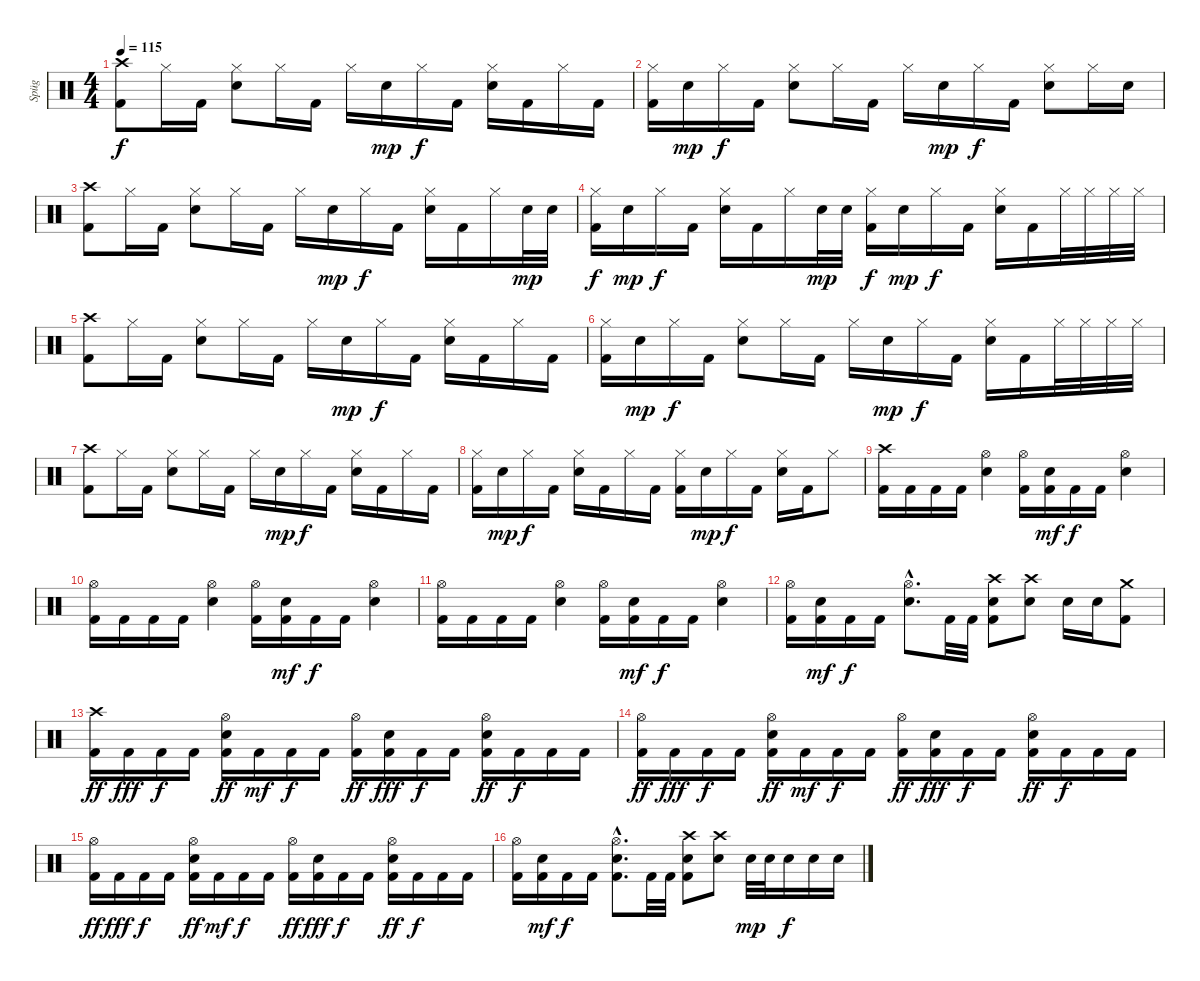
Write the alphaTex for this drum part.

\track ("Spüg" "Spüg") {instrument percussion}
\staff {score}
\articulation defaults
\ts (4 4)
\tempo 115
\clef neutral
\ks c
("Crash high (hit)" "Kick (hit) 2").8{dy f} "Hi-Hat (closed)".16 "Kick (hit) 2".16 ("Hi-Hat (closed)" "Electric Snare (hit)").8 "Hi-Hat (closed)".16 "Kick (hit) 2".16 "Hi-Hat (closed)".16 "Electric Snare (hit)".16{dy mp} "Hi-Hat (closed)".16{dy f} "Kick (hit) 2".16 ("Hi-Hat (closed)" "Electric Snare (hit)").16 "Kick (hit) 2".16 "Hi-Hat (closed)".16 "Kick (hit) 2".16 |
("Hi-Hat (closed)" "Kick (hit) 2").16 "Electric Snare (hit)".16{dy mp} "Hi-Hat (closed)".16{dy f} "Kick (hit) 2".16 ("Hi-Hat (closed)" "Electric Snare (hit)").8 "Hi-Hat (closed)".16 "Kick (hit) 2".16 "Hi-Hat (closed)".16 "Electric Snare (hit)".16{dy mp} "Hi-Hat (closed)".16{dy f} "Kick (hit) 2".16 ("Hi-Hat (closed)" "Electric Snare (hit)").8 "Hi-Hat (closed)".16 "Electric Snare (hit)".16 |
("Crash high (hit)" "Kick (hit) 2").8 "Hi-Hat (closed)".16 "Kick (hit) 2".16 ("Hi-Hat (closed)" "Electric Snare (hit)").8 "Hi-Hat (closed)".16 "Kick (hit) 2".16 "Hi-Hat (closed)".16 "Electric Snare (hit)".16{dy mp} "Hi-Hat (closed)".16{dy f} "Kick (hit) 2".16 ("Hi-Hat (closed)" "Electric Snare (hit)").16 "Kick (hit) 2".16 "Hi-Hat (closed)".16 "Electric Snare (hit)".32{dy mp} "Electric Snare (hit)".32 |
("Hi-Hat (closed)" "Kick (hit) 2").16{dy f} "Electric Snare (hit)".16{dy mp} "Hi-Hat (closed)".16{dy f} "Kick (hit) 2".16 ("Hi-Hat (closed)" "Electric Snare (hit)").16 "Kick (hit) 2".16 "Hi-Hat (closed)".16 "Electric Snare (hit)".32{dy mp} "Electric Snare (hit)".32 ("Hi-Hat (closed)" "Kick (hit) 2").16{dy f} "Electric Snare (hit)".16{dy mp} "Hi-Hat (closed)".16{dy f} "Kick (hit) 2".16 ("Hi-Hat (closed)" "Electric Snare (hit)").16 "Kick (hit) 2".16 "Hi-Hat (closed)".32 "Hi-Hat (closed)".32 "Hi-Hat (closed)".32 "Hi-Hat (closed)".32 |
("Crash high (hit)" "Kick (hit) 2").8 "Hi-Hat (closed)".16 "Kick (hit) 2".16 ("Hi-Hat (closed)" "Electric Snare (hit)").8 "Hi-Hat (closed)".16 "Kick (hit) 2".16 "Hi-Hat (closed)".16 "Electric Snare (hit)".16{dy mp} "Hi-Hat (closed)".16{dy f} "Kick (hit) 2".16 ("Hi-Hat (closed)" "Electric Snare (hit)").16 "Kick (hit) 2".16 "Hi-Hat (closed)".16 "Kick (hit) 2".16 |
("Hi-Hat (closed)" "Kick (hit) 2").16 "Electric Snare (hit)".16{dy mp} "Hi-Hat (closed)".16{dy f} "Kick (hit) 2".16 ("Hi-Hat (closed)" "Electric Snare (hit)").8 "Hi-Hat (closed)".16 "Kick (hit) 2".16 "Hi-Hat (closed)".16 "Electric Snare (hit)".16{dy mp} "Hi-Hat (closed)".16{dy f} "Kick (hit) 2".16 ("Hi-Hat (closed)" "Electric Snare (hit)").16 "Kick (hit) 2".16 "Hi-Hat (closed)".32 "Hi-Hat (closed)".32 "Hi-Hat (closed)".32 "Hi-Hat (closed)".32 |
("Crash high (hit)" "Kick (hit) 2").8 "Hi-Hat (closed)".16 "Kick (hit) 2".16 ("Hi-Hat (closed)" "Electric Snare (hit)").8 "Hi-Hat (closed)".16 "Kick (hit) 2".16 "Hi-Hat (closed)".16 "Electric Snare (hit)".16{dy mp} "Hi-Hat (closed)".16{dy f} "Kick (hit) 2".16 ("Hi-Hat (closed)" "Electric Snare (hit)").16 "Kick (hit) 2".16 "Hi-Hat (closed)".16 "Kick (hit) 2".16 |
("Hi-Hat (closed)" "Kick (hit) 2").16 "Electric Snare (hit)".16{dy mp} "Hi-Hat (closed)".16{dy f} "Kick (hit) 2".16 ("Hi-Hat (closed)" "Electric Snare (hit)").16 "Kick (hit) 2".16 "Hi-Hat (closed)".16 "Kick (hit) 2".16 ("Hi-Hat (closed)" "Kick (hit) 2").16 "Electric Snare (hit)".16{dy mp} "Hi-Hat (closed)".16{dy f} "Kick (hit) 2".16 ("Hi-Hat (closed)" "Electric Snare (hit)").16 "Kick (hit) 2".16 "Hi-Hat (closed)".8 |
("Crash high (hit)" "Kick (hit) 2").16 "Kick (hit) 2".16 "Kick (hit) 2".16 "Kick (hit) 2".16 ("Hi-Hat (open)" "Electric Snare (hit)").4 ("Hi-Hat (open)" "Kick (hit) 2").16 ("Electric Snare (hit)" "Kick (hit) 2").16{dy mf} "Kick (hit) 2".16{dy f} "Kick (hit) 2".16 ("Hi-Hat (open)" "Electric Snare (hit)").4 |
("Hi-Hat (open)" "Kick (hit) 2").16 "Kick (hit) 2".16 "Kick (hit) 2".16 "Kick (hit) 2".16 ("Hi-Hat (open)" "Electric Snare (hit)").4 ("Hi-Hat (open)" "Kick (hit) 2").16 ("Electric Snare (hit)" "Kick (hit) 2").16{dy mf} "Kick (hit) 2".16{dy f} "Kick (hit) 2".16 ("Hi-Hat (open)" "Electric Snare (hit)").4 |
("Hi-Hat (open)" "Kick (hit) 2").16 "Kick (hit) 2".16 "Kick (hit) 2".16 "Kick (hit) 2".16 ("Hi-Hat (open)" "Electric Snare (hit)").4 ("Hi-Hat (open)" "Kick (hit) 2").16 ("Electric Snare (hit)" "Kick (hit) 2").16{dy mf} "Kick (hit) 2".16{dy f} "Kick (hit) 2".16 ("Hi-Hat (open)" "Electric Snare (hit)").4 |
("Hi-Hat (open)" "Kick (hit) 2").16 ("Electric Snare (hit)" "Kick (hit) 2").16{dy mf} "Kick (hit) 2".16{dy f} "Kick (hit) 2".16 ("Hi-Hat (open)"{hac} "Electric Snare (hit)"{hac}).8{d} "Kick (hit) 2".32 "Kick (hit) 2".32 ("Crash high (hit)" "Electric Snare (hit)" "Kick (hit) 2").8 ("Crash high (hit)" "Electric Snare (hit)").8 "Electric Snare (hit)".16 "Electric Snare (hit)".16 ("Crash medium (hit)" "Kick (hit) 2").8 |
("Crash high (hit)" "Kick (hit) 2").16{dy ff} "Kick (hit) 2".16{dy fff} "Kick (hit) 2".16{dy f} "Kick (hit) 2".16 ("Hi-Hat (open)" "Electric Snare (hit)" "Kick (hit) 2").16{dy ff} "Kick (hit) 2".16{dy mf} "Kick (hit) 2".16{dy f} "Kick (hit) 2".16 ("Hi-Hat (open)" "Kick (hit) 2").16{dy ff} ("Electric Snare (hit)" "Kick (hit) 2").16{dy fff} "Kick (hit) 2".16{dy f} "Kick (hit) 2".16 ("Hi-Hat (open)" "Electric Snare (hit)" "Kick (hit) 2").16{dy ff} "Kick (hit) 2".16{dy f} "Kick (hit) 2".16 "Kick (hit) 2".16 |
("Hi-Hat (open)" "Kick (hit) 2").16{dy ff} "Kick (hit) 2".16{dy fff} "Kick (hit) 2".16{dy f} "Kick (hit) 2".16 ("Hi-Hat (open)" "Electric Snare (hit)" "Kick (hit) 2").16{dy ff} "Kick (hit) 2".16{dy mf} "Kick (hit) 2".16{dy f} "Kick (hit) 2".16 ("Hi-Hat (open)" "Kick (hit) 2").16{dy ff} ("Electric Snare (hit)" "Kick (hit) 2").16{dy fff} "Kick (hit) 2".16{dy f} "Kick (hit) 2".16 ("Hi-Hat (open)" "Electric Snare (hit)" "Kick (hit) 2").16{dy ff} "Kick (hit) 2".16{dy f} "Kick (hit) 2".16 "Kick (hit) 2".16 |
("Hi-Hat (open)" "Kick (hit) 2").16{dy ff} "Kick (hit) 2".16{dy fff} "Kick (hit) 2".16{dy f} "Kick (hit) 2".16 ("Hi-Hat (open)" "Electric Snare (hit)" "Kick (hit) 2").16{dy ff} "Kick (hit) 2".16{dy mf} "Kick (hit) 2".16{dy f} "Kick (hit) 2".16 ("Hi-Hat (open)" "Kick (hit) 2").16{dy ff} ("Electric Snare (hit)" "Kick (hit) 2").16{dy fff} "Kick (hit) 2".16{dy f} "Kick (hit) 2".16 ("Hi-Hat (open)" "Electric Snare (hit)" "Kick (hit) 2").16{dy ff} "Kick (hit) 2".16{dy f} "Kick (hit) 2".16 "Kick (hit) 2".16 |
("Hi-Hat (open)" "Kick (hit) 2").16 ("Electric Snare (hit)" "Kick (hit) 2").16{dy mf} "Kick (hit) 2".16{dy f} "Kick (hit) 2".16 ("Hi-Hat (open)"{hac} "Electric Snare (hit)"{hac} "Kick (hit) 2"{hac}).8{d} "Kick (hit) 2".32 "Kick (hit) 2".32 ("Crash high (hit)" "Electric Snare (hit)" "Kick (hit) 2").8 ("Crash high (hit)" "Electric Snare (hit)").8 "Electric Snare (hit)".32{dy mp} "Electric Snare (hit)".32 "Electric Snare (hit)".16{dy f} "Electric Snare (hit)".16 "Electric Snare (hit)".16
